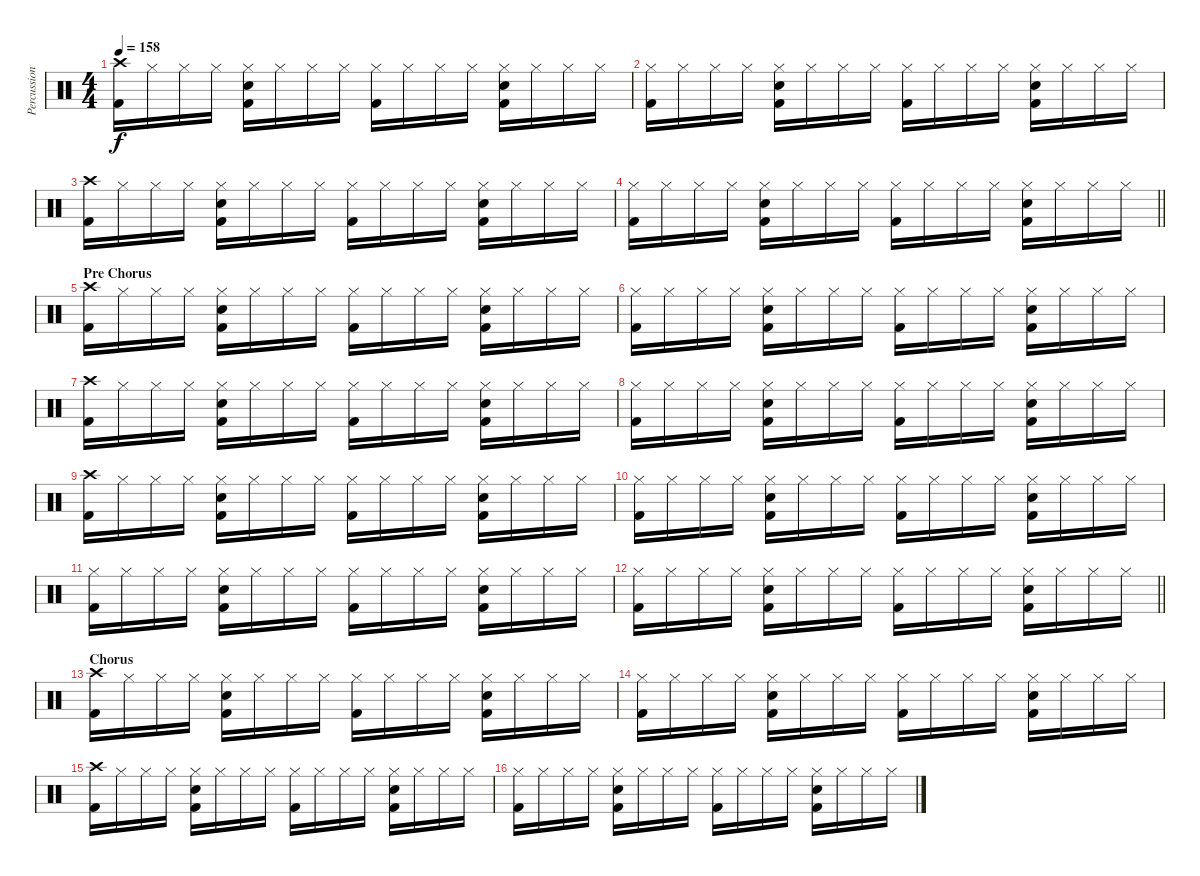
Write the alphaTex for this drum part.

\track ("Percussion" "Percussion") {instrument percussion}
\staff {score}
\articulation defaults
\ts (4 4)
\tempo 158
\clef neutral
\ks c
("Crash high (hit)" "Kick (hit) 2").16{dy f} "Hi-Hat (closed)".16 "Hi-Hat (closed)".16 "Hi-Hat (closed)".16 ("Hi-Hat (closed)" "Electric Snare (hit)" "Kick (hit) 2").16 "Hi-Hat (closed)".16 "Hi-Hat (closed)".16 "Hi-Hat (closed)".16 ("Hi-Hat (closed)" "Kick (hit) 2").16 "Hi-Hat (closed)".16 "Hi-Hat (closed)".16 "Hi-Hat (closed)".16 ("Hi-Hat (closed)" "Electric Snare (hit)" "Kick (hit) 2").16 "Hi-Hat (closed)".16 "Hi-Hat (closed)".16 "Hi-Hat (closed)".16 |
("Hi-Hat (closed)" "Kick (hit) 2").16 "Hi-Hat (closed)".16 "Hi-Hat (closed)".16 "Hi-Hat (closed)".16 ("Hi-Hat (closed)" "Electric Snare (hit)" "Kick (hit) 2").16 "Hi-Hat (closed)".16 "Hi-Hat (closed)".16 "Hi-Hat (closed)".16 ("Hi-Hat (closed)" "Kick (hit) 2").16 "Hi-Hat (closed)".16 "Hi-Hat (closed)".16 "Hi-Hat (closed)".16 ("Hi-Hat (closed)" "Electric Snare (hit)" "Kick (hit) 2").16 "Hi-Hat (closed)".16 "Hi-Hat (closed)".16 "Hi-Hat (closed)".16 |
("Crash high (hit)" "Kick (hit) 2").16 "Hi-Hat (closed)".16 "Hi-Hat (closed)".16 "Hi-Hat (closed)".16 ("Hi-Hat (closed)" "Electric Snare (hit)" "Kick (hit) 2").16 "Hi-Hat (closed)".16 "Hi-Hat (closed)".16 "Hi-Hat (closed)".16 ("Hi-Hat (closed)" "Kick (hit) 2").16 "Hi-Hat (closed)".16 "Hi-Hat (closed)".16 "Hi-Hat (closed)".16 ("Hi-Hat (closed)" "Electric Snare (hit)" "Kick (hit) 2").16 "Hi-Hat (closed)".16 "Hi-Hat (closed)".16 "Hi-Hat (closed)".16 |
\barLineRight lightlight
("Hi-Hat (closed)" "Kick (hit) 2").16 "Hi-Hat (closed)".16 "Hi-Hat (closed)".16 "Hi-Hat (closed)".16 ("Hi-Hat (closed)" "Electric Snare (hit)" "Kick (hit) 2").16 "Hi-Hat (closed)".16 "Hi-Hat (closed)".16 "Hi-Hat (closed)".16 ("Hi-Hat (closed)" "Kick (hit) 2").16 "Hi-Hat (closed)".16 "Hi-Hat (closed)".16 "Hi-Hat (closed)".16 ("Hi-Hat (closed)" "Electric Snare (hit)" "Kick (hit) 2").16 "Hi-Hat (closed)".16 "Hi-Hat (closed)".16 "Hi-Hat (closed)".16 |
\section ("" "Pre Chorus")
("Crash high (hit)" "Kick (hit) 2").16 "Hi-Hat (closed)".16 "Hi-Hat (closed)".16 "Hi-Hat (closed)".16 ("Hi-Hat (closed)" "Electric Snare (hit)" "Kick (hit) 2").16 "Hi-Hat (closed)".16 "Hi-Hat (closed)".16 "Hi-Hat (closed)".16 ("Hi-Hat (closed)" "Kick (hit) 2").16 "Hi-Hat (closed)".16 "Hi-Hat (closed)".16 "Hi-Hat (closed)".16 ("Hi-Hat (closed)" "Electric Snare (hit)" "Kick (hit) 2").16 "Hi-Hat (closed)".16 "Hi-Hat (closed)".16 "Hi-Hat (closed)".16 |
("Hi-Hat (closed)" "Kick (hit) 2").16 "Hi-Hat (closed)".16 "Hi-Hat (closed)".16 "Hi-Hat (closed)".16 ("Hi-Hat (closed)" "Electric Snare (hit)" "Kick (hit) 2").16 "Hi-Hat (closed)".16 "Hi-Hat (closed)".16 "Hi-Hat (closed)".16 ("Hi-Hat (closed)" "Kick (hit) 2").16 "Hi-Hat (closed)".16 "Hi-Hat (closed)".16 "Hi-Hat (closed)".16 ("Hi-Hat (closed)" "Electric Snare (hit)" "Kick (hit) 2").16 "Hi-Hat (closed)".16 "Hi-Hat (closed)".16 "Hi-Hat (closed)".16 |
("Crash high (hit)" "Kick (hit) 2").16 "Hi-Hat (closed)".16 "Hi-Hat (closed)".16 "Hi-Hat (closed)".16 ("Hi-Hat (closed)" "Electric Snare (hit)" "Kick (hit) 2").16 "Hi-Hat (closed)".16 "Hi-Hat (closed)".16 "Hi-Hat (closed)".16 ("Hi-Hat (closed)" "Kick (hit) 2").16 "Hi-Hat (closed)".16 "Hi-Hat (closed)".16 "Hi-Hat (closed)".16 ("Hi-Hat (closed)" "Electric Snare (hit)" "Kick (hit) 2").16 "Hi-Hat (closed)".16 "Hi-Hat (closed)".16 "Hi-Hat (closed)".16 |
("Hi-Hat (closed)" "Kick (hit) 2").16 "Hi-Hat (closed)".16 "Hi-Hat (closed)".16 "Hi-Hat (closed)".16 ("Hi-Hat (closed)" "Electric Snare (hit)" "Kick (hit) 2").16 "Hi-Hat (closed)".16 "Hi-Hat (closed)".16 "Hi-Hat (closed)".16 ("Hi-Hat (closed)" "Kick (hit) 2").16 "Hi-Hat (closed)".16 "Hi-Hat (closed)".16 "Hi-Hat (closed)".16 ("Hi-Hat (closed)" "Electric Snare (hit)" "Kick (hit) 2").16 "Hi-Hat (closed)".16 "Hi-Hat (closed)".16 "Hi-Hat (closed)".16 |
("Crash high (hit)" "Kick (hit) 2").16 "Hi-Hat (closed)".16 "Hi-Hat (closed)".16 "Hi-Hat (closed)".16 ("Hi-Hat (closed)" "Electric Snare (hit)" "Kick (hit) 2").16 "Hi-Hat (closed)".16 "Hi-Hat (closed)".16 "Hi-Hat (closed)".16 ("Hi-Hat (closed)" "Kick (hit) 2").16 "Hi-Hat (closed)".16 "Hi-Hat (closed)".16 "Hi-Hat (closed)".16 ("Hi-Hat (closed)" "Electric Snare (hit)" "Kick (hit) 2").16 "Hi-Hat (closed)".16 "Hi-Hat (closed)".16 "Hi-Hat (closed)".16 |
("Hi-Hat (closed)" "Kick (hit) 2").16 "Hi-Hat (closed)".16 "Hi-Hat (closed)".16 "Hi-Hat (closed)".16 ("Hi-Hat (closed)" "Electric Snare (hit)" "Kick (hit) 2").16 "Hi-Hat (closed)".16 "Hi-Hat (closed)".16 "Hi-Hat (closed)".16 ("Hi-Hat (closed)" "Kick (hit) 2").16 "Hi-Hat (closed)".16 "Hi-Hat (closed)".16 "Hi-Hat (closed)".16 ("Hi-Hat (closed)" "Electric Snare (hit)" "Kick (hit) 2").16 "Hi-Hat (closed)".16 "Hi-Hat (closed)".16 "Hi-Hat (closed)".16 |
("Hi-Hat (closed)" "Kick (hit) 2").16 "Hi-Hat (closed)".16 "Hi-Hat (closed)".16 "Hi-Hat (closed)".16 ("Hi-Hat (closed)" "Electric Snare (hit)" "Kick (hit) 2").16 "Hi-Hat (closed)".16 "Hi-Hat (closed)".16 "Hi-Hat (closed)".16 ("Hi-Hat (closed)" "Kick (hit) 2").16 "Hi-Hat (closed)".16 "Hi-Hat (closed)".16 "Hi-Hat (closed)".16 ("Hi-Hat (closed)" "Electric Snare (hit)" "Kick (hit) 2").16 "Hi-Hat (closed)".16 "Hi-Hat (closed)".16 "Hi-Hat (closed)".16 |
\barLineRight lightlight
("Hi-Hat (closed)" "Kick (hit) 2").16 "Hi-Hat (closed)".16 "Hi-Hat (closed)".16 "Hi-Hat (closed)".16 ("Hi-Hat (closed)" "Electric Snare (hit)" "Kick (hit) 2").16 "Hi-Hat (closed)".16 "Hi-Hat (closed)".16 "Hi-Hat (closed)".16 ("Hi-Hat (closed)" "Kick (hit) 2").16 "Hi-Hat (closed)".16 "Hi-Hat (closed)".16 "Hi-Hat (closed)".16 ("Hi-Hat (closed)" "Electric Snare (hit)" "Kick (hit) 2").16 "Hi-Hat (closed)".16 "Hi-Hat (closed)".16 "Hi-Hat (closed)".16 |
\section ("" "Chorus")
("Crash high (hit)" "Kick (hit) 2").16 "Hi-Hat (closed)".16 "Hi-Hat (closed)".16 "Hi-Hat (closed)".16 ("Hi-Hat (closed)" "Electric Snare (hit)" "Kick (hit) 2").16 "Hi-Hat (closed)".16 "Hi-Hat (closed)".16 "Hi-Hat (closed)".16 ("Hi-Hat (closed)" "Kick (hit) 2").16 "Hi-Hat (closed)".16 "Hi-Hat (closed)".16 "Hi-Hat (closed)".16 ("Hi-Hat (closed)" "Electric Snare (hit)" "Kick (hit) 2").16 "Hi-Hat (closed)".16 "Hi-Hat (closed)".16 "Hi-Hat (closed)".16 |
("Hi-Hat (closed)" "Kick (hit) 2").16 "Hi-Hat (closed)".16 "Hi-Hat (closed)".16 "Hi-Hat (closed)".16 ("Hi-Hat (closed)" "Electric Snare (hit)" "Kick (hit) 2").16 "Hi-Hat (closed)".16 "Hi-Hat (closed)".16 "Hi-Hat (closed)".16 ("Hi-Hat (closed)" "Kick (hit) 2").16 "Hi-Hat (closed)".16 "Hi-Hat (closed)".16 "Hi-Hat (closed)".16 ("Hi-Hat (closed)" "Electric Snare (hit)" "Kick (hit) 2").16 "Hi-Hat (closed)".16 "Hi-Hat (closed)".16 "Hi-Hat (closed)".16 |
("Crash high (hit)" "Kick (hit) 2").16 "Hi-Hat (closed)".16 "Hi-Hat (closed)".16 "Hi-Hat (closed)".16 ("Hi-Hat (closed)" "Electric Snare (hit)" "Kick (hit) 2").16 "Hi-Hat (closed)".16 "Hi-Hat (closed)".16 "Hi-Hat (closed)".16 ("Hi-Hat (closed)" "Kick (hit) 2").16 "Hi-Hat (closed)".16 "Hi-Hat (closed)".16 "Hi-Hat (closed)".16 ("Hi-Hat (closed)" "Electric Snare (hit)" "Kick (hit) 2").16 "Hi-Hat (closed)".16 "Hi-Hat (closed)".16 "Hi-Hat (closed)".16 |
("Hi-Hat (closed)" "Kick (hit) 2").16 "Hi-Hat (closed)".16 "Hi-Hat (closed)".16 "Hi-Hat (closed)".16 ("Hi-Hat (closed)" "Electric Snare (hit)" "Kick (hit) 2").16 "Hi-Hat (closed)".16 "Hi-Hat (closed)".16 "Hi-Hat (closed)".16 ("Hi-Hat (closed)" "Kick (hit) 2").16 "Hi-Hat (closed)".16 "Hi-Hat (closed)".16 "Hi-Hat (closed)".16 ("Hi-Hat (closed)" "Electric Snare (hit)" "Kick (hit) 2").16 "Hi-Hat (closed)".16 "Hi-Hat (closed)".16 "Hi-Hat (closed)".16
